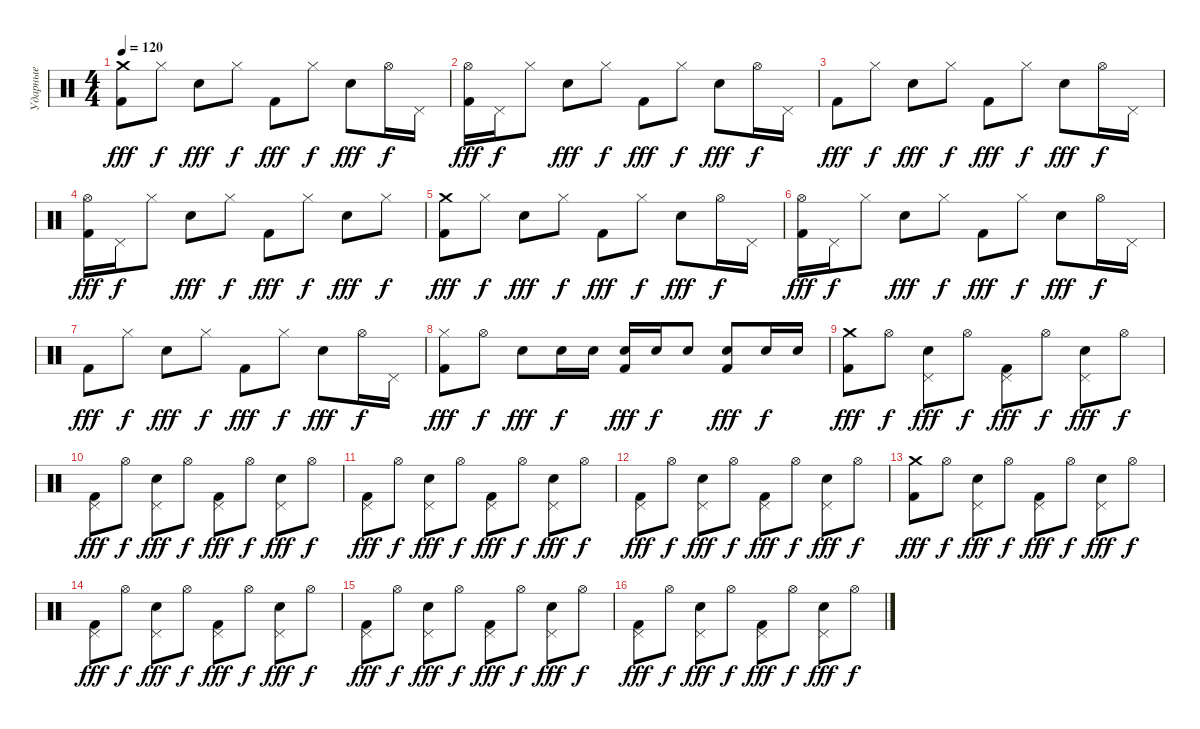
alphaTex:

\track ("Ударные" "Ударные") {instrument percussion}
\staff {score}
\articulation defaults
\ts (4 4)
\tempo 120
\clef neutral
\ks c
("Crash medium (hit)" "Kick (hit) 2").8{dy fff} "Hi-Hat (closed)".8{dy f} "Electric Snare (hit)".8{dy fff} "Hi-Hat (closed)".8{dy f} "Kick (hit) 2".8{dy fff} "Hi-Hat (closed)".8{dy f} "Electric Snare (hit)".8{dy fff} "Hi-Hat (open)".16{dy f} "Pedal Hi-Hat (hit)".16 |
("Hi-Hat (open)" "Kick (hit) 2").16{dy fff} "Pedal Hi-Hat (hit)".16{dy f} "Hi-Hat (closed)".8 "Electric Snare (hit)".8{dy fff} "Hi-Hat (closed)".8{dy f} "Kick (hit) 2".8{dy fff} "Hi-Hat (closed)".8{dy f} "Electric Snare (hit)".8{dy fff} "Hi-Hat (open)".16{dy f} "Pedal Hi-Hat (hit)".16 |
"Kick (hit) 2".8{dy fff} "Hi-Hat (closed)".8{dy f} "Electric Snare (hit)".8{dy fff} "Hi-Hat (closed)".8{dy f} "Kick (hit) 2".8{dy fff} "Hi-Hat (closed)".8{dy f} "Electric Snare (hit)".8{dy fff} "Hi-Hat (open)".16{dy f} "Pedal Hi-Hat (hit)".16 |
("Hi-Hat (open)" "Kick (hit) 2").16{dy fff} "Pedal Hi-Hat (hit)".16{dy f} "Hi-Hat (closed)".8 "Electric Snare (hit)".8{dy fff} "Hi-Hat (closed)".8{dy f} "Kick (hit) 2".8{dy fff} "Hi-Hat (closed)".8{dy f} "Electric Snare (hit)".8{dy fff} "Hi-Hat (closed)".8{dy f} |
("Crash medium (hit)" "Kick (hit) 2").8{dy fff} "Hi-Hat (closed)".8{dy f} "Electric Snare (hit)".8{dy fff} "Hi-Hat (closed)".8{dy f} "Kick (hit) 2".8{dy fff} "Hi-Hat (closed)".8{dy f} "Electric Snare (hit)".8{dy fff} "Hi-Hat (open)".16{dy f} "Pedal Hi-Hat (hit)".16 |
("Hi-Hat (open)" "Kick (hit) 2").16{dy fff} "Pedal Hi-Hat (hit)".16{dy f} "Hi-Hat (closed)".8 "Electric Snare (hit)".8{dy fff} "Hi-Hat (closed)".8{dy f} "Kick (hit) 2".8{dy fff} "Hi-Hat (closed)".8{dy f} "Electric Snare (hit)".8{dy fff} "Hi-Hat (open)".16{dy f} "Pedal Hi-Hat (hit)".16 |
"Kick (hit) 2".8{dy fff} "Hi-Hat (closed)".8{dy f} "Electric Snare (hit)".8{dy fff} "Hi-Hat (closed)".8{dy f} "Kick (hit) 2".8{dy fff} "Hi-Hat (closed)".8{dy f} "Electric Snare (hit)".8{dy fff} "Hi-Hat (open)".16{dy f} "Pedal Hi-Hat (hit)".16 |
("Hi-Hat (closed)" "Kick (hit) 2").8{dy fff} "Hi-Hat (open)".8{dy f} "Electric Snare (hit)".8{dy fff} "Electric Snare (hit)".16{dy f} "Electric Snare (hit)".16 ("Electric Snare (hit)" "Kick (hit) 2").16{dy fff} "Electric Snare (hit)".16{dy f} "Electric Snare (hit)".8 ("Electric Snare (hit)" "Kick (hit) 2").8{dy fff} "Electric Snare (hit)".16{dy f} "Electric Snare (hit)".16 |
("Crash medium (hit)" "Kick (hit) 2").8{dy fff} "Hi-Hat (open)".8{dy f} ("Pedal Hi-Hat (hit)" "Electric Snare (hit)").8{dy fff} "Hi-Hat (open)".8{dy f} ("Pedal Hi-Hat (hit)" "Kick (hit) 2").8{dy fff} "Hi-Hat (open)".8{dy f} ("Pedal Hi-Hat (hit)" "Electric Snare (hit)").8{dy fff} "Hi-Hat (open)".8{dy f} |
("Pedal Hi-Hat (hit)" "Kick (hit) 2").8{dy fff} "Hi-Hat (open)".8{dy f} ("Pedal Hi-Hat (hit)" "Electric Snare (hit)").8{dy fff} "Hi-Hat (open)".8{dy f} ("Pedal Hi-Hat (hit)" "Kick (hit) 2").8{dy fff} "Hi-Hat (open)".8{dy f} ("Pedal Hi-Hat (hit)" "Electric Snare (hit)").8{dy fff} "Hi-Hat (open)".8{dy f} |
("Pedal Hi-Hat (hit)" "Kick (hit) 2").8{dy fff} "Hi-Hat (open)".8{dy f} ("Pedal Hi-Hat (hit)" "Electric Snare (hit)").8{dy fff} "Hi-Hat (open)".8{dy f} ("Pedal Hi-Hat (hit)" "Kick (hit) 2").8{dy fff} "Hi-Hat (open)".8{dy f} ("Pedal Hi-Hat (hit)" "Electric Snare (hit)").8{dy fff} "Hi-Hat (open)".8{dy f} |
("Pedal Hi-Hat (hit)" "Kick (hit) 2").8{dy fff} "Hi-Hat (open)".8{dy f} ("Pedal Hi-Hat (hit)" "Electric Snare (hit)").8{dy fff} "Hi-Hat (open)".8{dy f} ("Pedal Hi-Hat (hit)" "Kick (hit) 2").8{dy fff} "Hi-Hat (open)".8{dy f} ("Pedal Hi-Hat (hit)" "Electric Snare (hit)").8{dy fff} "Hi-Hat (open)".8{dy f} |
("Crash medium (hit)" "Kick (hit) 2").8{dy fff} "Hi-Hat (open)".8{dy f} ("Pedal Hi-Hat (hit)" "Electric Snare (hit)").8{dy fff} "Hi-Hat (open)".8{dy f} ("Pedal Hi-Hat (hit)" "Kick (hit) 2").8{dy fff} "Hi-Hat (open)".8{dy f} ("Pedal Hi-Hat (hit)" "Electric Snare (hit)").8{dy fff} "Hi-Hat (open)".8{dy f} |
("Pedal Hi-Hat (hit)" "Kick (hit) 2").8{dy fff} "Hi-Hat (open)".8{dy f} ("Pedal Hi-Hat (hit)" "Electric Snare (hit)").8{dy fff} "Hi-Hat (open)".8{dy f} ("Pedal Hi-Hat (hit)" "Kick (hit) 2").8{dy fff} "Hi-Hat (open)".8{dy f} ("Pedal Hi-Hat (hit)" "Electric Snare (hit)").8{dy fff} "Hi-Hat (open)".8{dy f} |
("Pedal Hi-Hat (hit)" "Kick (hit) 2").8{dy fff} "Hi-Hat (open)".8{dy f} ("Pedal Hi-Hat (hit)" "Electric Snare (hit)").8{dy fff} "Hi-Hat (open)".8{dy f} ("Pedal Hi-Hat (hit)" "Kick (hit) 2").8{dy fff} "Hi-Hat (open)".8{dy f} ("Pedal Hi-Hat (hit)" "Electric Snare (hit)").8{dy fff} "Hi-Hat (open)".8{dy f} |
("Pedal Hi-Hat (hit)" "Kick (hit) 2").8{dy fff} "Hi-Hat (open)".8{dy f} ("Pedal Hi-Hat (hit)" "Electric Snare (hit)").8{dy fff} "Hi-Hat (open)".8{dy f} ("Pedal Hi-Hat (hit)" "Kick (hit) 2").8{dy fff} "Hi-Hat (open)".8{dy f} ("Pedal Hi-Hat (hit)" "Electric Snare (hit)").8{dy fff} "Hi-Hat (open)".8{dy f}
